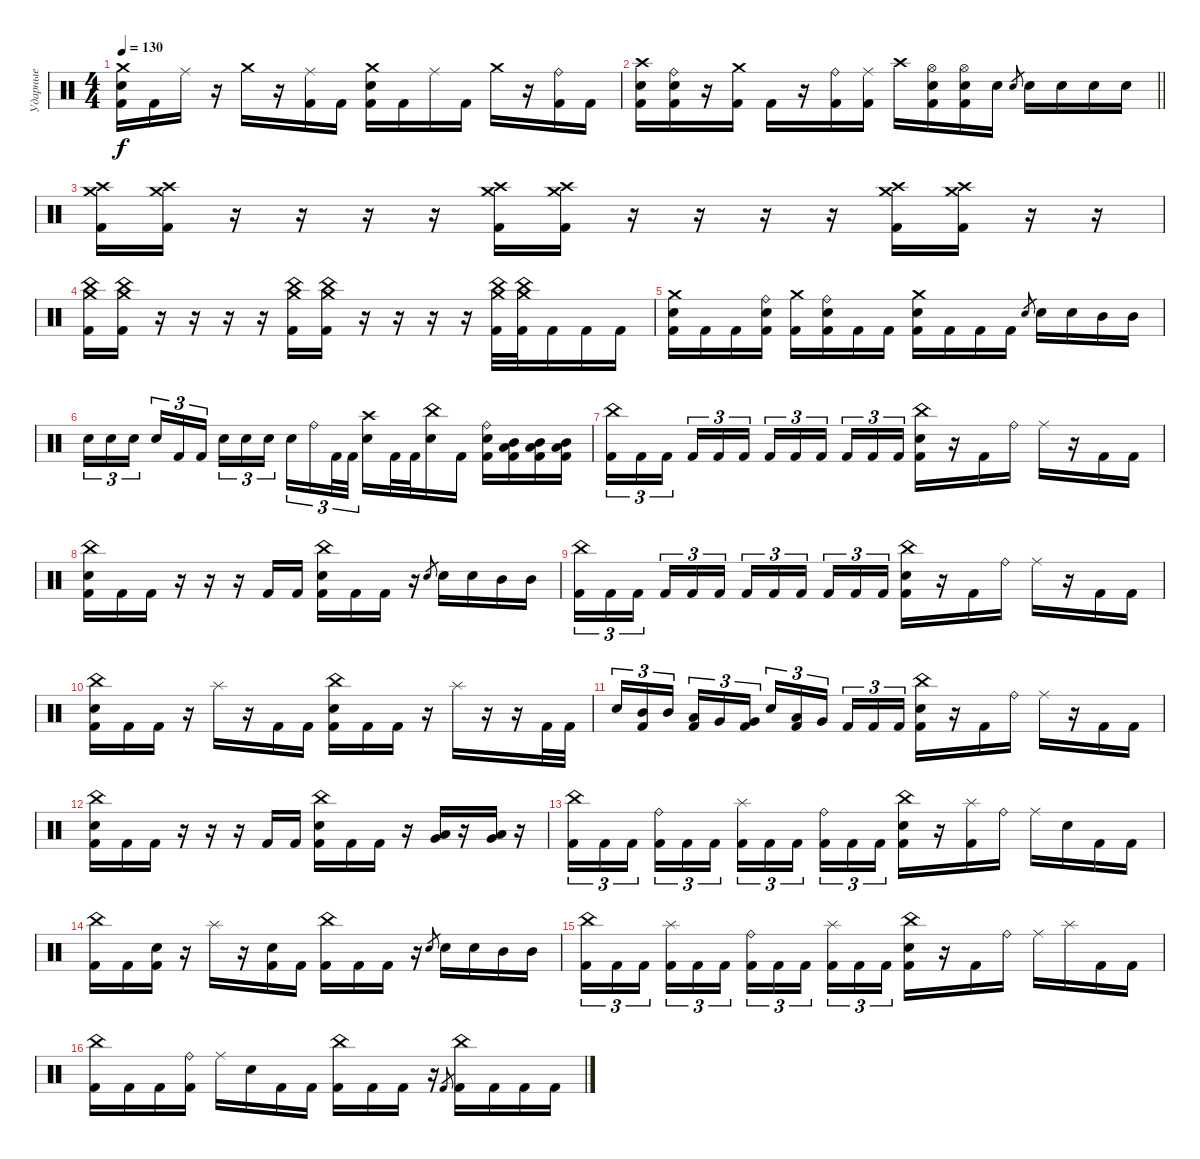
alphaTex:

\track ("Ударные" "Ударные") {instrument percussion}
\staff {score}
\articulation defaults
\ts (4 4)
\tempo 130
\clef neutral
\ks c
("Crash medium (hit)" "Electric Snare (hit)" "Kick (hit) 2").16{dy f} "Kick (hit) 2".16 "Ride (middle)".16 r.16 "Crash medium (hit)".16 r.16 ("Ride (middle)" "Kick (hit) 2").16 "Kick (hit) 2".16 ("Crash medium (hit)" "Electric Snare (hit)" "Kick (hit) 2").16 "Kick (hit) 2".16 "Ride (middle)".16 "Kick (hit) 2".16 "Crash medium (hit)".16 r.16 ("Ride (bell)" "Kick (hit) 2").16 "Kick (hit) 2".16 |
\barLineRight lightlight
("Crash high (hit)" "Electric Snare (hit)" "Kick (hit) 2").16 ("Ride (bell)" "Electric Snare (hit)" "Kick (hit) 2").16 r.16 ("Crash medium (hit)" "Kick (hit) 2").16 "Kick (hit) 2".16 r.16 ("Ride (bell)" "Kick (hit) 2").16 ("Ride (middle)" "Kick (hit) 2").16 "Crash high (hit)".16 ("Hi-Hat (open)" "Electric Snare (hit)" "Kick (hit) 2").16 ("Hi-Hat (open)" "Electric Snare (hit)" "Kick (hit) 2").16 "Electric Snare (hit)".16 "Electric Snare (hit)".8{gr} "Electric Snare (hit)".16 "Electric Snare (hit)".16 "Electric Snare (hit)".16 "Electric Snare (hit)".16 |
("Crash medium (hit)" "Crash high (hit)" "Kick (hit) 2").16 ("Crash medium (hit)" "Crash high (hit)" "Kick (hit) 2").16 r.16 r.16 r.16 r.16 ("Crash medium (hit)" "Crash high (hit)" "Kick (hit) 2").16 ("Crash medium (hit)" "Crash high (hit)" "Kick (hit) 2").16 r.16 r.16 r.16 r.16 ("Crash medium (hit)" "Crash high (hit)" "Kick (hit) 2").16 ("Crash medium (hit)" "Crash high (hit)" "Kick (hit) 2").16 r.16 r.16 |
("Crash medium (hit)" "China (hit)" "Kick (hit) 2").16 ("Crash medium (hit)" "China (hit)" "Kick (hit) 2").16 r.16 r.16 r.16 r.16 ("Crash medium (hit)" "China (hit)" "Kick (hit) 2").16 ("Crash medium (hit)" "China (hit)" "Kick (hit) 2").16 r.16 r.16 r.16 r.16 ("Crash medium (hit)" "China (hit)" "Kick (hit) 2").32 ("Crash medium (hit)" "China (hit)" "Kick (hit) 2").32 "Kick (hit) 2".16 "Kick (hit) 2".16 "Kick (hit) 2".16 |
("Crash medium (hit)" "Electric Snare (hit)" "Kick (hit) 2").16 "Kick (hit) 2".16 "Kick (hit) 2".16 ("Ride (bell)" "Electric Snare (hit)" "Kick (hit) 2").16 ("Crash medium (hit)" "Kick (hit) 2").16 ("Ride (bell)" "Electric Snare (hit)" "Kick (hit) 2").16 "Kick (hit) 2".16 "Kick (hit) 2".16 ("Crash medium (hit)" "Electric Snare (hit)" "Kick (hit) 2").16 "Kick (hit) 2".16 "Kick (hit) 2".16 "Kick (hit) 2".16 "Electric Snare (hit)".8{gr} "Electric Snare (hit)".16 "Electric Snare (hit)".16 "Mid Tom (hit)".16 "Mid Tom (hit)".16 |
"Electric Snare (hit)".16{tu (3 2)} "Electric Snare (hit)".16{tu (3 2)} "Electric Snare (hit)".16{tu (3 2) beam splitsecondary} "Electric Snare (hit)".16{tu (3 2)} "Kick (hit) 2".16{tu (3 2)} "Kick (hit) 2".16{tu (3 2)} "Electric Snare (hit)".16{tu (3 2)} "Electric Snare (hit)".16{tu (3 2)} "Electric Snare (hit)".16{tu (3 2) beam splitsecondary} "Electric Snare (hit)".16{tu (3 2)} "Ride (bell)".16{tu (3 2)} "Kick (hit) 2".32{tu (3 2)} "Kick (hit) 2".32{tu (3 2)} ("Crash high (hit)" "Electric Snare (hit)").16 "Kick (hit) 2".32 "Kick (hit) 2".32 ("China (hit)" "Electric Snare (hit)").16 "Kick (hit) 2".16 ("Ride (bell)" "Electric Snare (hit)" "Kick (hit) 2").16 ("Mid Tom (hit)" "Low Floor Tom (hit)" "Kick (hit) 2").16 ("Mid Tom (hit)" "Low Floor Tom (hit)" "Kick (hit) 2").16 ("Mid Tom (hit)" "Low Floor Tom (hit)" "Kick (hit) 2").16 |
("China (hit)" "Kick (hit) 2").16{tu (3 2)} "Kick (hit) 2".16{tu (3 2)} "Kick (hit) 2".16{tu (3 2) beam splitsecondary} "Kick (hit) 2".16{tu (3 2)} "Kick (hit) 2".16{tu (3 2)} "Kick (hit) 2".16{tu (3 2)} "Kick (hit) 2".16{tu (3 2)} "Kick (hit) 2".16{tu (3 2)} "Kick (hit) 2".16{tu (3 2) beam splitsecondary} "Kick (hit) 2".16{tu (3 2)} "Kick (hit) 2".16{tu (3 2)} "Kick (hit) 2".16{tu (3 2)} ("China (hit)" "Electric Snare (hit)" "Kick (hit) 2").16 r.16 "Kick (hit) 2".16 "Ride (bell)".16 "Ride (middle)".16 r.16 "Kick (hit) 2".16 "Kick (hit) 2".16 |
("China (hit)" "Electric Snare (hit)" "Kick (hit) 2").16 "Kick (hit) 2".16 "Kick (hit) 2".16 r.16 r.16 r.16 "Kick (hit) 2".16 "Kick (hit) 2".16 ("China (hit)" "Electric Snare (hit)" "Kick (hit) 2").16 "Kick (hit) 2".16 "Kick (hit) 2".16 r.16 "Electric Snare (hit)".8{gr} "Electric Snare (hit)".16 "Electric Snare (hit)".16 "Mid Tom (hit)".16 "Mid Tom (hit)".16 |
("China (hit)" "Kick (hit) 2").16{tu (3 2)} "Kick (hit) 2".16{tu (3 2)} "Kick (hit) 2".16{tu (3 2) beam splitsecondary} "Kick (hit) 2".16{tu (3 2)} "Kick (hit) 2".16{tu (3 2)} "Kick (hit) 2".16{tu (3 2)} "Kick (hit) 2".16{tu (3 2)} "Kick (hit) 2".16{tu (3 2)} "Kick (hit) 2".16{tu (3 2) beam splitsecondary} "Kick (hit) 2".16{tu (3 2)} "Kick (hit) 2".16{tu (3 2)} "Kick (hit) 2".16{tu (3 2)} ("China (hit)" "Electric Snare (hit)" "Kick (hit) 2").16 r.16 "Kick (hit) 2".16 "Ride (bell)".16 "Ride (middle)".16 r.16 "Kick (hit) 2".16 "Kick (hit) 2".16 |
("China (hit)" "Electric Snare (hit)" "Kick (hit) 2").16 "Kick (hit) 2".16 "Kick (hit) 2".16 r.16 "Splash (hit)".16 r.16 "Kick (hit) 2".16 "Kick (hit) 2".16 ("China (hit)" "Electric Snare (hit)" "Kick (hit) 2").16 "Kick (hit) 2".16 "Kick (hit) 2".16 r.16 "Splash (hit)".16 r.16 r.16 "Kick (hit) 2".32 "Kick (hit) 2".32 |
"Electric Snare (hit)".16{tu (3 2)} ("Mid Tom (hit)" "Kick (hit) 2").16{tu (3 2)} "Mid Tom (hit)".16{tu (3 2) beam splitsecondary} ("Low Tom (hit)" "Kick (hit) 2").16{tu (3 2)} "Very Low Tom (hit)".16{tu (3 2)} ("Very Low Tom (hit)" "Kick (hit) 2").16{tu (3 2)} "Electric Snare (hit)".16{tu (3 2)} ("Low Tom (hit)" "Kick (hit) 2").16{tu (3 2)} "Very Low Tom (hit)".16{tu (3 2) beam splitsecondary} "Kick (hit) 2".16{tu (3 2)} "Kick (hit) 2".16{tu (3 2)} "Kick (hit) 2".16{tu (3 2)} ("China (hit)" "Electric Snare (hit)" "Kick (hit) 2").16 r.16 "Kick (hit) 2".16 "Ride (bell)".16 "Ride (middle)".16 r.16 "Kick (hit) 2".16 "Kick (hit) 2".16 |
("China (hit)" "Electric Snare (hit)" "Kick (hit) 2").16 "Kick (hit) 2".16 "Kick (hit) 2".16 r.16 r.16 r.16 "Kick (hit) 2".16 "Kick (hit) 2".16 ("China (hit)" "Electric Snare (hit)" "Kick (hit) 2").16 "Kick (hit) 2".16 "Kick (hit) 2".16 r.16 ("Very Low Tom (hit)" "Low Tom (hit)").16 r.16 ("Very Low Tom (hit)" "Low Tom (hit)").16 r.16 |
("China (hit)" "Kick (hit) 2").16{tu (3 2)} "Kick (hit) 2".16{tu (3 2)} "Kick (hit) 2".16{tu (3 2) beam splitsecondary} ("Ride (bell)" "Kick (hit) 2").16{tu (3 2)} "Kick (hit) 2".16{tu (3 2)} "Kick (hit) 2".16{tu (3 2)} ("Splash (hit)" "Kick (hit) 2").16{tu (3 2)} "Kick (hit) 2".16{tu (3 2)} "Kick (hit) 2".16{tu (3 2) beam splitsecondary} ("Ride (bell)" "Kick (hit) 2").16{tu (3 2)} "Kick (hit) 2".16{tu (3 2)} "Kick (hit) 2".16{tu (3 2)} ("China (hit)" "Electric Snare (hit)" "Kick (hit) 2").16 r.16 ("Splash (hit)" "Kick (hit) 2").16 "Ride (bell)".16 "Ride (middle)".16 "Electric Snare (hit)".16 "Kick (hit) 2".16 "Kick (hit) 2".16 |
("China (hit)" "Kick (hit) 2").16 "Kick (hit) 2".16 ("Electric Snare (hit)" "Kick (hit) 2").16 r.16 "Splash (hit)".16 r.16 ("Electric Snare (hit)" "Kick (hit) 2").16 "Kick (hit) 2".16 ("China (hit)" "Kick (hit) 2").16 "Kick (hit) 2".16 "Kick (hit) 2".16 r.16 "Electric Snare (hit)".8{gr} "Electric Snare (hit)".16 "Electric Snare (hit)".16 "Mid Tom (hit)".16 "Mid Tom (hit)".16 |
("China (hit)" "Kick (hit) 2").16{tu (3 2)} "Kick (hit) 2".16{tu (3 2)} "Kick (hit) 2".16{tu (3 2) beam splitsecondary} ("Splash (hit)" "Kick (hit) 2").16{tu (3 2)} "Kick (hit) 2".16{tu (3 2)} "Kick (hit) 2".16{tu (3 2)} ("Ride (bell)" "Kick (hit) 2").16{tu (3 2)} "Kick (hit) 2".16{tu (3 2)} "Kick (hit) 2".16{tu (3 2) beam splitsecondary} ("Splash (hit)" "Kick (hit) 2").16{tu (3 2)} "Kick (hit) 2".16{tu (3 2)} "Kick (hit) 2".16{tu (3 2)} ("China (hit)" "Electric Snare (hit)" "Kick (hit) 2").16 r.16 "Kick (hit) 2".16 "Ride (bell)".16 "Ride (middle)".16 "Splash (hit)".16 "Kick (hit) 2".16 "Kick (hit) 2".16 |
("China (hit)" "Kick (hit) 2").16 "Kick (hit) 2".16 "Kick (hit) 2".16 ("Ride (bell)" "Kick (hit) 2").16 "Ride (middle)".16 "Electric Snare (hit)".16 "Kick (hit) 2".16 "Kick (hit) 2".16 ("China (hit)" "Kick (hit) 2").16 "Kick (hit) 2".16 "Kick (hit) 2".16 r.16 "Kick (hit) 2".8{gr} ("China (hit)" "Kick (hit) 2").16 "Kick (hit) 2".16 "Kick (hit) 2".16 "Kick (hit) 2".16
